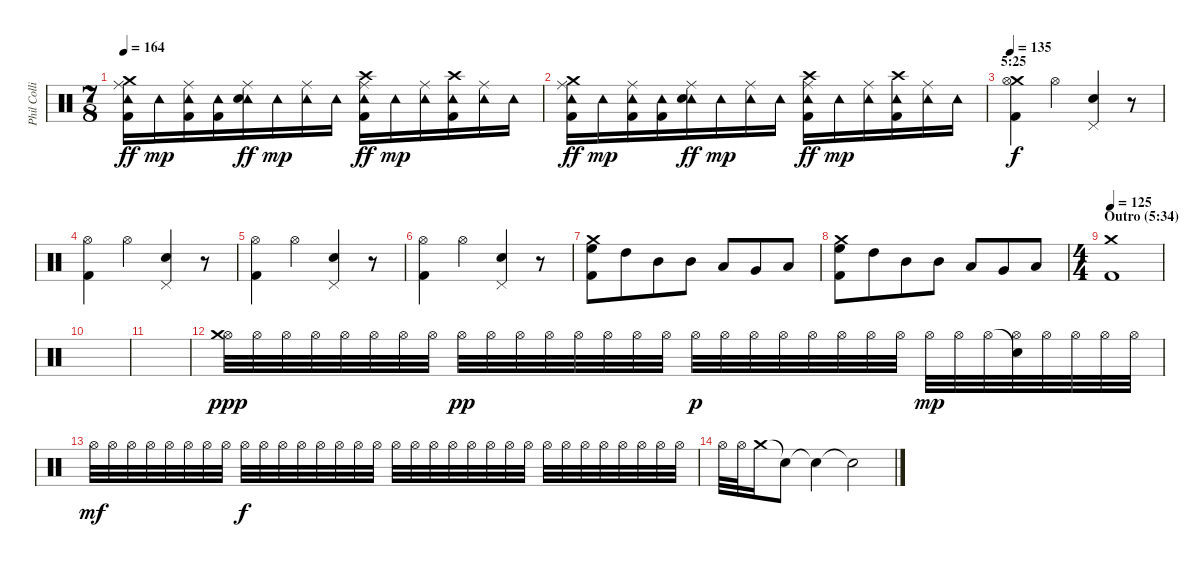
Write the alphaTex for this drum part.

\track ("Phil Collins (drums)" "Phil Colli") {instrument percussion}
\staff {score}
\articulation defaults
\ts (7 8)
\tempo 164
\clef neutral
\ks c
("Tambourine (hit)" "Ride (middle)" "Crash medium (hit)" "Kick (hit) 2").16{dy ff} "Tambourine (hit)".16{dy mp} ("Tambourine (hit)" "Ride (middle)" "Kick (hit) 2").16 ("Tambourine (hit)" "Kick (hit) 2").16 ("Tambourine (hit)" "Ride (middle)" "Electric Snare (hit)").16{dy ff} "Tambourine (hit)".16{dy mp} ("Tambourine (hit)" "Ride (middle)").16 "Tambourine (hit)".16 ("Tambourine (hit)" "Ride (middle)" "Crash high (hit)" "Kick (hit) 2").16{dy ff} "Tambourine (hit)".16{dy mp} ("Tambourine (hit)" "Ride (middle)").16 ("Tambourine (hit)" "Crash high (hit)" "Kick (hit) 2").16 ("Tambourine (hit)" "Ride (middle)").16 "Tambourine (hit)".16 |
("Tambourine (hit)" "Ride (middle)" "Crash medium (hit)" "Kick (hit) 2").16{dy ff} "Tambourine (hit)".16{dy mp} ("Tambourine (hit)" "Ride (middle)" "Kick (hit) 2").16 ("Tambourine (hit)" "Kick (hit) 2").16 ("Tambourine (hit)" "Ride (middle)" "Electric Snare (hit)").16{dy ff} "Tambourine (hit)".16{dy mp} ("Tambourine (hit)" "Ride (middle)").16 "Tambourine (hit)".16 ("Tambourine (hit)" "Ride (middle)" "Crash high (hit)" "Kick (hit) 2").16{dy ff} "Tambourine (hit)".16{dy mp} ("Tambourine (hit)" "Ride (middle)").16 ("Tambourine (hit)" "Crash high (hit)" "Kick (hit) 2").16 ("Tambourine (hit)" "Ride (middle)").16 "Tambourine (hit)".16 |
\section ("" "5:25")
\tempo 135
("Crash medium (hit)" "Hi-Hat (open)" "Kick (hit) 2").4{dy f} "Hi-Hat (open)".4 ("Pedal Hi-Hat (hit)" "Electric Snare (hit)").4 r.8 |
("Hi-Hat (open)" "Kick (hit) 2").4 "Hi-Hat (open)".4 ("Pedal Hi-Hat (hit)" "Electric Snare (hit)").4 r.8 |
("Hi-Hat (open)" "Kick (hit) 2").4 "Hi-Hat (open)".4 ("Pedal Hi-Hat (hit)" "Electric Snare (hit)").4 r.8 |
("Hi-Hat (open)" "Kick (hit) 2").4 "Hi-Hat (open)".4 ("Pedal Hi-Hat (hit)" "Electric Snare (hit)").4 r.8 |
("High Floor Tom (hit)" "Crash medium (hit)" "Kick (hit) 2").8 "High Tom (hit)".8 "Mid Tom (hit)".8 "Mid Tom (hit)".8 "Low Tom (hit)".8 "Very Low Tom (hit)".8 "Low Floor Tom (hit)".8 |
("High Floor Tom (hit)" "Crash medium (hit)" "Kick (hit) 2").8 "High Tom (hit)".8 "Mid Tom (hit)".8 "Mid Tom (hit)".8 "Low Tom (hit)".8 "Very Low Tom (hit)".8 "Low Floor Tom (hit)".8 |
\ts (4 4)
\section ("" "Outro (5:34)")
\tempo 125
("Crash medium (hit)" "Kick (hit) 2").1 |
|
|
("Hi-Hat (open)" "Crash medium (hit)").32{dy ppp} "Hi-Hat (open)".32 "Hi-Hat (open)".32 "Hi-Hat (open)".32 "Hi-Hat (open)".32 "Hi-Hat (open)".32 "Hi-Hat (open)".32 "Hi-Hat (open)".32 "Hi-Hat (open)".32{dy pp} "Hi-Hat (open)".32 "Hi-Hat (open)".32 "Hi-Hat (open)".32 "Hi-Hat (open)".32 "Hi-Hat (open)".32 "Hi-Hat (open)".32 "Hi-Hat (open)".32 "Hi-Hat (open)".32{dy p} "Hi-Hat (open)".32 "Hi-Hat (open)".32 "Hi-Hat (open)".32 "Hi-Hat (open)".32 "Hi-Hat (open)".32 "Hi-Hat (open)".32 "Hi-Hat (open)".32 "Hi-Hat (open)".32{dy mp} "Hi-Hat (open)".32 "Hi-Hat (open)".32 ("Snare (hit)"{t} "Hi-Hat (open)").32 "Hi-Hat (open)".32 "Hi-Hat (open)".32 "Hi-Hat (open)".32 "Hi-Hat (open)".32 |
"Hi-Hat (open)".32{dy mf} "Hi-Hat (open)".32 "Hi-Hat (open)".32 "Hi-Hat (open)".32 "Hi-Hat (open)".32 "Hi-Hat (open)".32 "Hi-Hat (open)".32 "Hi-Hat (open)".32 "Hi-Hat (open)".32{dy f} "Hi-Hat (open)".32 "Hi-Hat (open)".32 "Hi-Hat (open)".32 "Hi-Hat (open)".32 "Hi-Hat (open)".32 "Hi-Hat (open)".32 "Hi-Hat (open)".32 "Hi-Hat (open)".32 "Hi-Hat (open)".32 "Hi-Hat (open)".32 "Hi-Hat (open)".32 "Hi-Hat (open)".32 "Hi-Hat (open)".32 "Hi-Hat (open)".32 "Hi-Hat (open)".32 "Hi-Hat (open)".32 "Hi-Hat (open)".32 "Hi-Hat (open)".32 "Hi-Hat (open)".32 "Hi-Hat (open)".32 "Hi-Hat (open)".32 "Hi-Hat (open)".32 "Hi-Hat (open)".32 |
"Hi-Hat (open)".32 "Hi-Hat (open)".32 "Crash medium (hit)".16 "Snare (hit)"{t}.8 "Snare (hit)"{t}.4 "Snare (hit)"{t}.2
